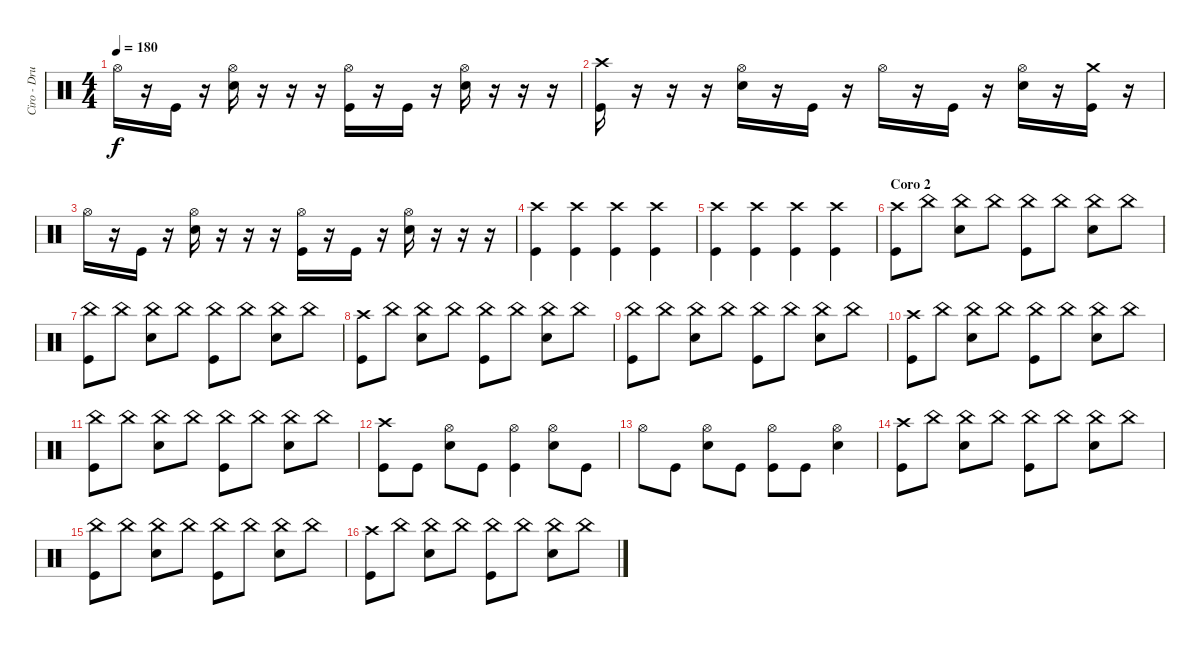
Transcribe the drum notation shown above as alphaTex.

\track ("Ciro - Drums" "Ciro - Dru") {instrument percussion}
\staff {score}
\articulation defaults
\ts (4 4)
\tempo 180
\clef neutral
\ks c "Hi-Hat (open)".16{dy f}
r.16 "Kick (hit)".16 r.16 ("Hi-Hat (open)" "Electric Snare (hit)").16 r.16 r.16 r.16 ("Hi-Hat (open)" "Kick (hit)").16 r.16 "Kick (hit)".16 r.16 ("Hi-Hat (open)" "Electric Snare (hit)").16 r.16 r.16 r.16 |
("Crash high (hit)" "Kick (hit)").16 r.16 r.16 r.16 ("Hi-Hat (open)" "Electric Snare (hit)").16 r.16 "Kick (hit)".16 r.16 "Hi-Hat (open)".16 r.16 "Kick (hit)".16 r.16 ("Hi-Hat (open)" "Electric Snare (hit)").16 r.16 ("Crash medium (hit)" "Kick (hit)").16 r.16 |
"Hi-Hat (open)".16 r.16 "Kick (hit)".16 r.16 ("Hi-Hat (open)" "Electric Snare (hit)").16 r.16 r.16 r.16 ("Hi-Hat (open)" "Kick (hit)").16 r.16 "Kick (hit)".16 r.16 ("Hi-Hat (open)" "Electric Snare (hit)").16 r.16 r.16 r.16 |
("Crash high (hit)" "Kick (hit)").4 ("Crash high (hit)" "Kick (hit)").4 ("Crash high (hit)" "Kick (hit)").4 ("Crash high (hit)" "Kick (hit)").4 |
("Crash high (hit)" "Kick (hit)").4 ("Crash high (hit)" "Kick (hit)").4 ("Crash high (hit)" "Kick (hit)").4 ("Crash high (hit)" "Kick (hit)").4 |
\section ("" "Coro 2")
("Crash high (hit)" "Kick (hit)").8 "China (hit)".8 ("China (hit)" "Electric Snare (hit)").8 "China (hit)".8 ("China (hit)" "Kick (hit)").8 "China (hit)".8 ("China (hit)" "Electric Snare (hit)").8 "China (hit)".8 |
("China (hit)" "Kick (hit)").8 "China (hit)".8 ("China (hit)" "Electric Snare (hit)").8 "China (hit)".8 ("China (hit)" "Kick (hit)").8 "China (hit)".8 ("China (hit)" "Electric Snare (hit)").8 "China (hit)".8 |
("Crash high (hit)" "Kick (hit)").8 "China (hit)".8 ("China (hit)" "Electric Snare (hit)").8 "China (hit)".8 ("China (hit)" "Kick (hit)").8 "China (hit)".8 ("China (hit)" "Electric Snare (hit)").8 "China (hit)".8 |
("China (hit)" "Kick (hit)").8 "China (hit)".8 ("China (hit)" "Electric Snare (hit)").8 "China (hit)".8 ("China (hit)" "Kick (hit)").8 "China (hit)".8 ("China (hit)" "Electric Snare (hit)").8 "China (hit)".8 |
("Crash high (hit)" "Kick (hit)").8 "China (hit)".8 ("China (hit)" "Electric Snare (hit)").8 "China (hit)".8 ("China (hit)" "Kick (hit)").8 "China (hit)".8 ("China (hit)" "Electric Snare (hit)").8 "China (hit)".8 |
("China (hit)" "Kick (hit)").8 "China (hit)".8 ("China (hit)" "Electric Snare (hit)").8 "China (hit)".8 ("China (hit)" "Kick (hit)").8 "China (hit)".8 ("China (hit)" "Electric Snare (hit)").8 "China (hit)".8 |
("Crash high (hit)" "Kick (hit)").8 "Kick (hit)".8 ("Hi-Hat (open)" "Electric Snare (hit)").8 "Kick (hit)".8 ("Hi-Hat (open)" "Kick (hit)").4 ("Hi-Hat (open)" "Electric Snare (hit)").8 "Kick (hit)".8 |
"Hi-Hat (open)".8 "Kick (hit)".8 ("Hi-Hat (open)" "Electric Snare (hit)").8 "Kick (hit)".8 ("Hi-Hat (open)" "Kick (hit)").8 "Kick (hit)".8 ("Hi-Hat (open)" "Electric Snare (hit)").4 |
("Crash high (hit)" "Kick (hit)").8 "China (hit)".8 ("China (hit)" "Electric Snare (hit)").8 "China (hit)".8 ("China (hit)" "Kick (hit)").8 "China (hit)".8 ("China (hit)" "Electric Snare (hit)").8 "China (hit)".8 |
("China (hit)" "Kick (hit)").8 "China (hit)".8 ("China (hit)" "Electric Snare (hit)").8 "China (hit)".8 ("China (hit)" "Kick (hit)").8 "China (hit)".8 ("China (hit)" "Electric Snare (hit)").8 "China (hit)".8 |
("Crash high (hit)" "Kick (hit)").8 "China (hit)".8 ("China (hit)" "Electric Snare (hit)").8 "China (hit)".8 ("China (hit)" "Kick (hit)").8 "China (hit)".8 ("China (hit)" "Electric Snare (hit)").8 "China (hit)".8
